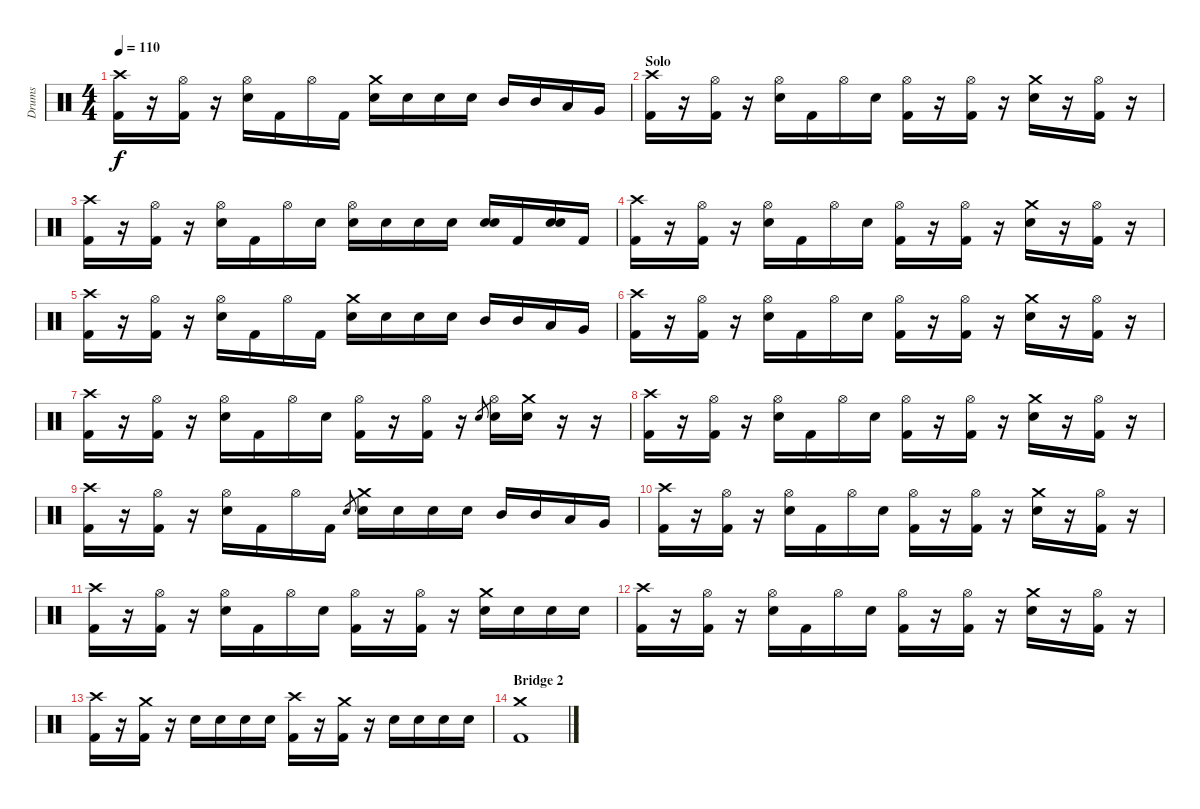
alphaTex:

\track ("Drums" "Drums") {instrument percussion}
\staff {score}
\articulation defaults
\ts (4 4)
\tempo 110
\clef neutral
\ks c
("Crash high (hit)" "Kick (hit) 2").16{dy f} r.16 ("Hi-Hat (open)" "Kick (hit) 2").16 r.16 ("Hi-Hat (open)" "Electric Snare (hit)").16 "Kick (hit) 2".16 "Hi-Hat (open)".16 "Kick (hit) 2".16 ("Crash medium (hit)" "Electric Snare (hit)").16 "Electric Snare (hit)".16 "Electric Snare (hit)".16 "Electric Snare (hit)".16 "Mid Tom (hit)".16 "Mid Tom (hit)".16 "Low Tom (hit)".16 "Very Low Tom (hit)".16 |
\section ("" "Solo")
("Crash high (hit)" "Kick (hit) 2").16 r.16 ("Hi-Hat (open)" "Kick (hit) 2").16 r.16 ("Hi-Hat (open)" "Electric Snare (hit)").16 "Kick (hit) 2".16 "Hi-Hat (open)".16 "Electric Snare (hit)".16 ("Hi-Hat (open)" "Kick (hit) 2").16 r.16 ("Hi-Hat (open)" "Kick (hit) 2").16 r.16 ("Crash medium (hit)" "Electric Snare (hit)").16 r.16 ("Hi-Hat (open)" "Kick (hit) 2").16 r.16 |
("Crash high (hit)" "Kick (hit) 2").16 r.16 ("Hi-Hat (open)" "Kick (hit) 2").16 r.16 ("Hi-Hat (open)" "Electric Snare (hit)").16 "Kick (hit) 2".16 "Hi-Hat (open)".16 "Electric Snare (hit)".16 ("Hi-Hat (open)" "Electric Snare (hit)").16 "Electric Snare (hit)".16 "Electric Snare (hit)".16 "Electric Snare (hit)".16 ("Electric Snare (hit)" "Electric Snare (hit)").16{bd 240} "Kick (hit) 2".16 ("Electric Snare (hit)" "Electric Snare (hit)").16{bd 240} "Kick (hit) 2".16 |
("Crash high (hit)" "Kick (hit) 2").16 r.16 ("Hi-Hat (open)" "Kick (hit) 2").16 r.16 ("Hi-Hat (open)" "Electric Snare (hit)").16 "Kick (hit) 2".16 "Hi-Hat (open)".16 "Electric Snare (hit)".16 ("Hi-Hat (open)" "Kick (hit) 2").16 r.16 ("Hi-Hat (open)" "Kick (hit) 2").16 r.16 ("Crash medium (hit)" "Electric Snare (hit)").16 r.16 ("Hi-Hat (open)" "Kick (hit) 2").16 r.16 |
("Crash high (hit)" "Kick (hit) 2").16 r.16 ("Hi-Hat (open)" "Kick (hit) 2").16 r.16 ("Hi-Hat (open)" "Electric Snare (hit)").16 "Kick (hit) 2".16 "Hi-Hat (open)".16 "Kick (hit) 2".16 ("Crash medium (hit)" "Electric Snare (hit)").16 "Electric Snare (hit)".16 "Electric Snare (hit)".16 "Electric Snare (hit)".16 "Mid Tom (hit)".16 "Mid Tom (hit)".16 "Low Tom (hit)".16 "Very Low Tom (hit)".16 |
("Crash high (hit)" "Kick (hit) 2").16 r.16 ("Hi-Hat (open)" "Kick (hit) 2").16 r.16 ("Hi-Hat (open)" "Electric Snare (hit)").16 "Kick (hit) 2".16 "Hi-Hat (open)".16 "Electric Snare (hit)".16 ("Hi-Hat (open)" "Kick (hit) 2").16 r.16 ("Hi-Hat (open)" "Kick (hit) 2").16 r.16 ("Crash medium (hit)" "Electric Snare (hit)").16 r.16 ("Hi-Hat (open)" "Kick (hit) 2").16 r.16 |
("Crash high (hit)" "Kick (hit) 2").16 r.16 ("Hi-Hat (open)" "Kick (hit) 2").16 r.16 ("Hi-Hat (open)" "Electric Snare (hit)").16 "Kick (hit) 2".16 "Hi-Hat (open)".16 "Electric Snare (hit)".16 ("Hi-Hat (open)" "Kick (hit) 2").16 r.16 ("Hi-Hat (open)" "Kick (hit) 2").16 r.16 "Electric Snare (hit)".8{gr} ("Hi-Hat (open)" "Electric Snare (hit)").16 ("Crash medium (hit)" "Electric Snare (hit)").16 r.16 r.16 |
("Crash high (hit)" "Kick (hit) 2").16 r.16 ("Hi-Hat (open)" "Kick (hit) 2").16 r.16 ("Hi-Hat (open)" "Electric Snare (hit)").16 "Kick (hit) 2".16 "Hi-Hat (open)".16 "Electric Snare (hit)".16 ("Hi-Hat (open)" "Kick (hit) 2").16 r.16 ("Hi-Hat (open)" "Kick (hit) 2").16 r.16 ("Crash medium (hit)" "Electric Snare (hit)").16 r.16 ("Hi-Hat (open)" "Kick (hit) 2").16 r.16 |
("Crash high (hit)" "Kick (hit) 2").16 r.16 ("Hi-Hat (open)" "Kick (hit) 2").16 r.16 ("Hi-Hat (open)" "Electric Snare (hit)").16 "Kick (hit) 2".16 "Hi-Hat (open)".16 "Kick (hit) 2".16 "Electric Snare (hit)".8{gr} ("Crash medium (hit)" "Electric Snare (hit)").16 "Electric Snare (hit)".16 "Electric Snare (hit)".16 "Electric Snare (hit)".16 "Mid Tom (hit)".16 "Mid Tom (hit)".16 "Low Tom (hit)".16 "Very Low Tom (hit)".16 |
("Crash high (hit)" "Kick (hit) 2").16 r.16 ("Hi-Hat (open)" "Kick (hit) 2").16 r.16 ("Hi-Hat (open)" "Electric Snare (hit)").16 "Kick (hit) 2".16 "Hi-Hat (open)".16 "Electric Snare (hit)".16 ("Hi-Hat (open)" "Kick (hit) 2").16 r.16 ("Hi-Hat (open)" "Kick (hit) 2").16 r.16 ("Crash medium (hit)" "Electric Snare (hit)").16 r.16 ("Hi-Hat (open)" "Kick (hit) 2").16 r.16 |
("Crash high (hit)" "Kick (hit) 2").16 r.16 ("Hi-Hat (open)" "Kick (hit) 2").16 r.16 ("Hi-Hat (open)" "Electric Snare (hit)").16 "Kick (hit) 2".16 "Hi-Hat (open)".16 "Electric Snare (hit)".16 ("Hi-Hat (open)" "Kick (hit) 2").16 r.16 ("Hi-Hat (open)" "Kick (hit) 2").16 r.16 ("Crash medium (hit)" "Electric Snare (hit)").16 "Electric Snare (hit)".16 "Electric Snare (hit)".16 "Electric Snare (hit)".16 |
("Crash high (hit)" "Kick (hit) 2").16 r.16 ("Hi-Hat (open)" "Kick (hit) 2").16 r.16 ("Hi-Hat (open)" "Electric Snare (hit)").16 "Kick (hit) 2".16 "Hi-Hat (open)".16 "Electric Snare (hit)".16 ("Hi-Hat (open)" "Kick (hit) 2").16 r.16 ("Hi-Hat (open)" "Kick (hit) 2").16 r.16 ("Crash medium (hit)" "Electric Snare (hit)").16 r.16 ("Hi-Hat (open)" "Kick (hit) 2").16 r.16 |
("Crash high (hit)" "Kick (hit) 2").16 r.16 ("Crash medium (hit)" "Kick (hit) 2").16 r.16 "Electric Snare (hit)".16 "Electric Snare (hit)".16 "Electric Snare (hit)".16 "Electric Snare (hit)".16 ("Crash high (hit)" "Kick (hit) 2").16 r.16 ("Crash medium (hit)" "Kick (hit) 2").16 r.16 "Electric Snare (hit)".16 "Electric Snare (hit)".16 "Electric Snare (hit)".16 "Electric Snare (hit)".16 |
\section ("" "Bridge 2")
("Crash medium (hit)" "Kick (hit) 2").1
